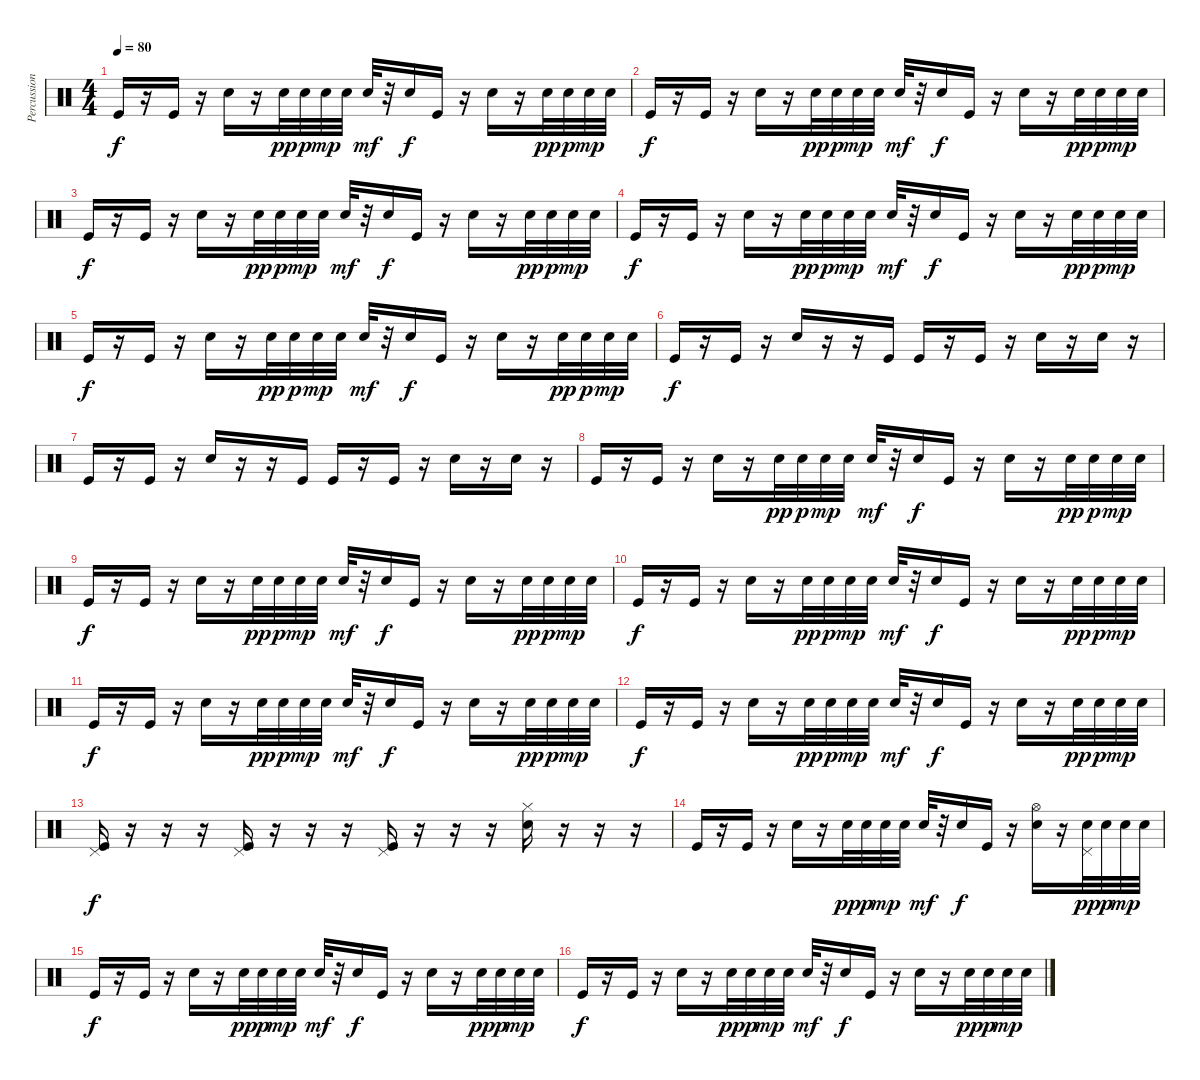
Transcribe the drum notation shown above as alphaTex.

\track ("Percussions" "Percussion") {instrument percussion}
\staff {score}
\articulation defaults
\ts (4 4)
\tempo 80
\clef neutral
\ks c "Kick (hit)".16{dy f}
r.16 "Kick (hit)".16 r.16 "Snare (hit) 2".16 r.16 "Snare (hit) 2".32{dy pp} "Snare (hit) 2".32{dy p} "Snare (hit) 2".32{dy mp} "Snare (hit) 2".32 "Snare (hit) 2".32{dy mf} r.32 "Electric Snare (hit)".16{dy f} "Kick (hit)".16 r.16 "Electric Snare (hit)".16 r.16 "Snare (hit) 2".32{dy pp} "Snare (hit) 2".32{dy p} "Snare (hit) 2".32{dy mp} "Snare (hit) 2".32 |
"Kick (hit)".16{dy f} r.16 "Kick (hit)".16 r.16 "Snare (hit) 2".16 r.16 "Snare (hit) 2".32{dy pp} "Snare (hit) 2".32{dy p} "Snare (hit) 2".32{dy mp} "Snare (hit) 2".32 "Snare (hit) 2".32{dy mf} r.32 "Electric Snare (hit)".16{dy f} "Kick (hit)".16 r.16 "Electric Snare (hit)".16 r.16 "Snare (hit) 2".32{dy pp} "Snare (hit) 2".32{dy p} "Snare (hit) 2".32{dy mp} "Snare (hit) 2".32 |
"Kick (hit)".16{dy f volume 0} r.16{volume 11} "Kick (hit)".16 r.16 "Snare (hit) 2".16 r.16 "Snare (hit) 2".32{dy pp} "Snare (hit) 2".32{dy p} "Snare (hit) 2".32{dy mp} "Snare (hit) 2".32 "Snare (hit) 2".32{dy mf} r.32 "Electric Snare (hit)".16{dy f} "Kick (hit)".16 r.16 "Electric Snare (hit)".16 r.16 "Snare (hit) 2".32{dy pp} "Snare (hit) 2".32{dy p} "Snare (hit) 2".32{dy mp} "Snare (hit) 2".32 |
"Kick (hit)".16{dy f} r.16 "Kick (hit)".16 r.16 "Snare (hit) 2".16 r.16 "Snare (hit) 2".32{dy pp} "Snare (hit) 2".32{dy p} "Snare (hit) 2".32{dy mp} "Snare (hit) 2".32 "Snare (hit) 2".32{dy mf} r.32 "Electric Snare (hit)".16{dy f} "Kick (hit)".16 r.16 "Electric Snare (hit)".16 r.16 "Snare (hit) 2".32{dy pp} "Snare (hit) 2".32{dy p} "Snare (hit) 2".32{dy mp} "Snare (hit) 2".32 |
"Kick (hit)".16{dy f} r.16 "Kick (hit)".16 r.16 "Snare (hit) 2".16 r.16 "Snare (hit) 2".32{dy pp} "Snare (hit) 2".32{dy p} "Snare (hit) 2".32{dy mp} "Snare (hit) 2".32 "Snare (hit) 2".32{dy mf} r.32 "Electric Snare (hit)".16{dy f} "Kick (hit)".16 r.16 "Electric Snare (hit)".16 r.16 "Snare (hit) 2".32{dy pp} "Snare (hit) 2".32{dy p} "Snare (hit) 2".32{dy mp} "Snare (hit) 2".32 |
"Kick (hit)".16{dy f} r.16 "Kick (hit)".16 r.16 "Snare (hit) 2".16 r.16 r.16 "Kick (hit)".16 "Kick (hit)".16 r.16 "Kick (hit)".16 r.16 "Snare (hit) 2".16 r.16 "Electric Snare (hit)".16 r.16 |
"Kick (hit)".16 r.16 "Kick (hit)".16 r.16 "Snare (hit) 2".16 r.16 r.16 "Kick (hit)".16 "Kick (hit)".16 r.16 "Kick (hit)".16 r.16 "Snare (hit) 2".16 r.16 "Electric Snare (hit)".16 r.16 |
"Kick (hit)".16 r.16 "Kick (hit)".16 r.16 "Snare (hit) 2".16 r.16 "Snare (hit) 2".32{dy pp} "Snare (hit) 2".32{dy p} "Snare (hit) 2".32{dy mp} "Snare (hit) 2".32 "Snare (hit) 2".32{dy mf} r.32 "Electric Snare (hit)".16{dy f} "Kick (hit)".16 r.16 "Electric Snare (hit)".16 r.16 "Snare (hit) 2".32{dy pp} "Snare (hit) 2".32{dy p} "Snare (hit) 2".32{dy mp} "Snare (hit) 2".32 |
"Kick (hit)".16{dy f} r.16 "Kick (hit)".16 r.16 "Snare (hit) 2".16 r.16 "Snare (hit) 2".32{dy pp} "Snare (hit) 2".32{dy p} "Snare (hit) 2".32{dy mp} "Snare (hit) 2".32 "Snare (hit) 2".32{dy mf} r.32 "Electric Snare (hit)".16{dy f} "Kick (hit)".16 r.16 "Electric Snare (hit)".16 r.16 "Snare (hit) 2".32{dy pp} "Snare (hit) 2".32{dy p} "Snare (hit) 2".32{dy mp} "Snare (hit) 2".32 |
"Kick (hit)".16{dy f} r.16 "Kick (hit)".16 r.16 "Snare (hit) 2".16 r.16 "Snare (hit) 2".32{dy pp} "Snare (hit) 2".32{dy p} "Snare (hit) 2".32{dy mp} "Snare (hit) 2".32 "Snare (hit) 2".32{dy mf} r.32 "Electric Snare (hit)".16{dy f} "Kick (hit)".16 r.16 "Electric Snare (hit)".16 r.16 "Snare (hit) 2".32{dy pp} "Snare (hit) 2".32{dy p} "Snare (hit) 2".32{dy mp} "Snare (hit) 2".32 |
"Kick (hit)".16{dy f} r.16 "Kick (hit)".16 r.16 "Snare (hit) 2".16 r.16 "Snare (hit) 2".32{dy pp} "Snare (hit) 2".32{dy p} "Snare (hit) 2".32{dy mp} "Snare (hit) 2".32 "Snare (hit) 2".32{dy mf} r.32 "Electric Snare (hit)".16{dy f} "Kick (hit)".16 r.16 "Electric Snare (hit)".16 r.16 "Snare (hit) 2".32{dy pp} "Snare (hit) 2".32{dy p} "Snare (hit) 2".32{dy mp} "Snare (hit) 2".32 |
"Kick (hit)".16{dy f} r.16 "Kick (hit)".16 r.16 "Snare (hit) 2".16 r.16 "Snare (hit) 2".32{dy pp} "Snare (hit) 2".32{dy p} "Snare (hit) 2".32{dy mp} "Snare (hit) 2".32 "Snare (hit) 2".32{dy mf} r.32 "Electric Snare (hit)".16{dy f} "Kick (hit)".16 r.16 "Electric Snare (hit)".16 r.16 "Snare (hit) 2".32{dy pp} "Snare (hit) 2".32{dy p} "Snare (hit) 2".32{dy mp} "Snare (hit) 2".32 |
("Pedal Hi-Hat (hit)" "Kick (hit)").16{dy f} r.16 r.16 r.16 ("Pedal Hi-Hat (hit)" "Kick (hit)").16 r.16 r.16 r.16 ("Pedal Hi-Hat (hit)" "Kick (hit)").16 r.16 r.16 r.16 ("Hi-Hat (closed)" "Electric Snare (hit)").16 r.16 r.16 r.16 |
"Kick (hit)".16 r.16 "Kick (hit)".16 r.16 "Snare (hit) 2".16 r.16 "Snare (hit) 2".32{dy pp} "Snare (hit) 2".32{dy p} "Snare (hit) 2".32{dy mp} "Snare (hit) 2".32 "Snare (hit) 2".32{dy mf} r.32 "Electric Snare (hit)".16{dy f} "Kick (hit)".16 r.16 ("Hi-Hat (open)" "Electric Snare (hit)").16 r.16 ("Pedal Hi-Hat (hit)" "Snare (hit) 2").32{dy pp} "Snare (hit) 2".32{dy p} "Snare (hit) 2".32{dy mp} "Snare (hit) 2".32 |
"Kick (hit)".16{dy f} r.16 "Kick (hit)".16 r.16 "Snare (hit) 2".16 r.16 "Snare (hit) 2".32{dy pp} "Snare (hit) 2".32{dy p} "Snare (hit) 2".32{dy mp} "Snare (hit) 2".32 "Snare (hit) 2".32{dy mf} r.32 "Electric Snare (hit)".16{dy f} "Kick (hit)".16 r.16 "Electric Snare (hit)".16 r.16 "Snare (hit) 2".32{dy pp} "Snare (hit) 2".32{dy p} "Snare (hit) 2".32{dy mp} "Snare (hit) 2".32 |
"Kick (hit)".16{dy f} r.16 "Kick (hit)".16 r.16 "Snare (hit) 2".16 r.16 "Snare (hit) 2".32{dy pp} "Snare (hit) 2".32{dy p} "Snare (hit) 2".32{dy mp} "Snare (hit) 2".32 "Snare (hit) 2".32{dy mf} r.32 "Electric Snare (hit)".16{dy f} "Kick (hit)".16 r.16 "Electric Snare (hit)".16 r.16 "Snare (hit) 2".32{dy pp} "Snare (hit) 2".32{dy p} "Snare (hit) 2".32{dy mp} "Snare (hit) 2".32
